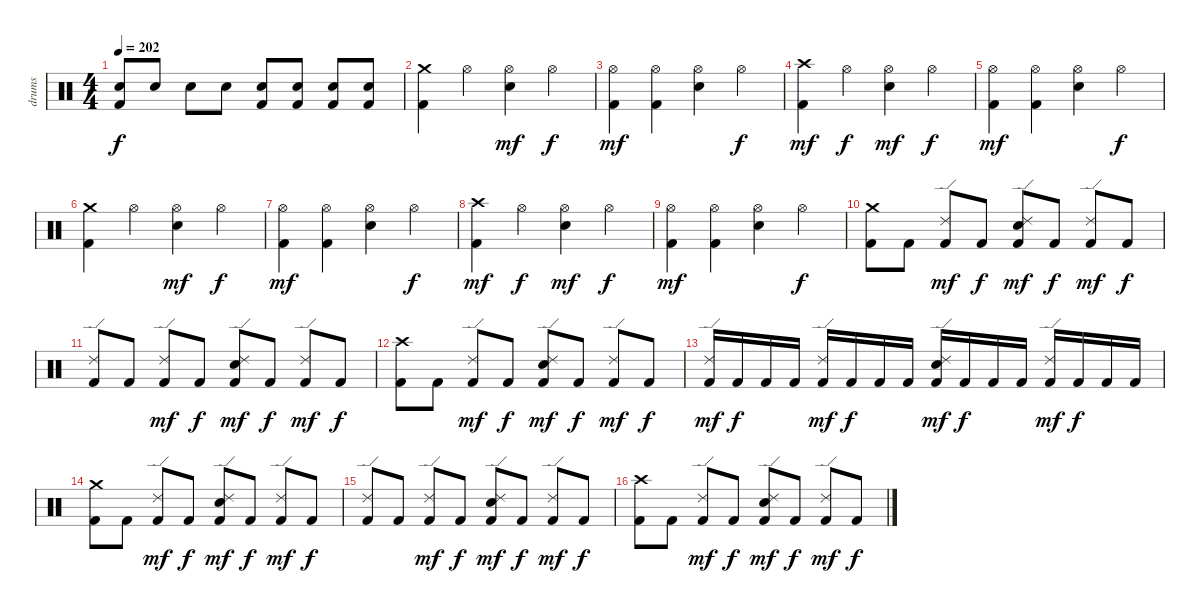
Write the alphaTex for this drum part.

\track ("drums" "drums") {instrument percussion}
\staff {score}
\articulation defaults
\ts (4 4)
\tempo 202
\clef neutral
\ks c
("Snare (hit) 2" "Kick (hit) 2").8{dy f} "Snare (hit) 2".8 "Snare (hit) 2".8 "Snare (hit) 2".8 ("Snare (hit) 2" "Kick (hit) 2").8 ("Snare (hit) 2" "Kick (hit) 2").8 ("Snare (hit) 2" "Kick (hit) 2").8 ("Snare (hit) 2" "Kick (hit) 2").8 |
("Crash medium (hit)" "Kick (hit) 2").4 "Hi-Hat (open)".4 ("Hi-Hat (open)" "Snare (hit) 2").4{dy mf} "Hi-Hat (open)".4{dy f} |
("Hi-Hat (open)" "Kick (hit) 2").4{dy mf} ("Hi-Hat (open)" "Kick (hit) 2").4 ("Hi-Hat (open)" "Snare (hit) 2").4 "Hi-Hat (open)".4{dy f} |
("Crash high (hit)" "Kick (hit) 2").4{dy mf} "Hi-Hat (open)".4{dy f} ("Hi-Hat (open)" "Snare (hit) 2").4{dy mf} "Hi-Hat (open)".4{dy f} |
("Hi-Hat (open)" "Kick (hit) 2").4{dy mf} ("Hi-Hat (open)" "Kick (hit) 2").4 ("Hi-Hat (open)" "Snare (hit) 2").4 "Hi-Hat (open)".4{dy f} |
("Crash medium (hit)" "Kick (hit) 2").4 "Hi-Hat (open)".4 ("Hi-Hat (open)" "Snare (hit) 2").4{dy mf} "Hi-Hat (open)".4{dy f} |
("Hi-Hat (open)" "Kick (hit) 2").4{dy mf} ("Hi-Hat (open)" "Kick (hit) 2").4 ("Hi-Hat (open)" "Snare (hit) 2").4 "Hi-Hat (open)".4{dy f} |
("Crash high (hit)" "Kick (hit) 2").4{dy mf} "Hi-Hat (open)".4{dy f} ("Hi-Hat (open)" "Snare (hit) 2").4{dy mf} "Hi-Hat (open)".4{dy f} |
("Hi-Hat (open)" "Kick (hit) 2").4{dy mf} ("Hi-Hat (open)" "Kick (hit) 2").4 ("Hi-Hat (open)" "Snare (hit) 2").4 "Hi-Hat (open)".4{dy f} |
("Crash medium (hit)" "Kick (hit) 2").8 "Kick (hit) 2".8 ("Ride (edge) 2" "Kick (hit) 2").8{dy mf} "Kick (hit) 2".8{dy f} ("Ride (edge) 2" "Snare (hit) 2" "Kick (hit) 2").8{dy mf} "Kick (hit) 2".8{dy f} ("Ride (edge) 2" "Kick (hit) 2").8{dy mf} "Kick (hit) 2".8{dy f} |
("Ride (edge) 2" "Kick (hit) 2").8 "Kick (hit) 2".8 ("Ride (edge) 2" "Kick (hit) 2").8{dy mf} "Kick (hit) 2".8{dy f} ("Ride (edge) 2" "Snare (hit) 2" "Kick (hit) 2").8{dy mf} "Kick (hit) 2".8{dy f} ("Ride (edge) 2" "Kick (hit) 2").8{dy mf} "Kick (hit) 2".8{dy f} |
("Crash high (hit)" "Kick (hit) 2").8 "Kick (hit) 2".8 ("Ride (edge) 2" "Kick (hit) 2").8{dy mf} "Kick (hit) 2".8{dy f} ("Ride (edge) 2" "Snare (hit) 2" "Kick (hit) 2").8{dy mf} "Kick (hit) 2".8{dy f} ("Ride (edge) 2" "Kick (hit) 2").8{dy mf} "Kick (hit) 2".8{dy f} |
("Ride (edge) 2" "Kick (hit) 2").16{dy mf} "Kick (hit) 2".16{dy f} "Kick (hit) 2".16 "Kick (hit) 2".16 ("Ride (edge) 2" "Kick (hit) 2").16{dy mf} "Kick (hit) 2".16{dy f} "Kick (hit) 2".16 "Kick (hit) 2".16 ("Ride (edge) 2" "Snare (hit) 2" "Kick (hit) 2").16{dy mf} "Kick (hit) 2".16{dy f} "Kick (hit) 2".16 "Kick (hit) 2".16 ("Ride (edge) 2" "Kick (hit) 2").16{dy mf} "Kick (hit) 2".16{dy f} "Kick (hit) 2".16 "Kick (hit) 2".16 |
("Crash medium (hit)" "Kick (hit) 2").8 "Kick (hit) 2".8 ("Ride (edge) 2" "Kick (hit) 2").8{dy mf} "Kick (hit) 2".8{dy f} ("Ride (edge) 2" "Snare (hit) 2" "Kick (hit) 2").8{dy mf} "Kick (hit) 2".8{dy f} ("Ride (edge) 2" "Kick (hit) 2").8{dy mf} "Kick (hit) 2".8{dy f} |
("Ride (edge) 2" "Kick (hit) 2").8 "Kick (hit) 2".8 ("Ride (edge) 2" "Kick (hit) 2").8{dy mf} "Kick (hit) 2".8{dy f} ("Ride (edge) 2" "Snare (hit) 2" "Kick (hit) 2").8{dy mf} "Kick (hit) 2".8{dy f} ("Ride (edge) 2" "Kick (hit) 2").8{dy mf} "Kick (hit) 2".8{dy f} |
("Crash high (hit)" "Kick (hit) 2").8 "Kick (hit) 2".8 ("Ride (edge) 2" "Kick (hit) 2").8{dy mf} "Kick (hit) 2".8{dy f} ("Ride (edge) 2" "Snare (hit) 2" "Kick (hit) 2").8{dy mf} "Kick (hit) 2".8{dy f} ("Ride (edge) 2" "Kick (hit) 2").8{dy mf} "Kick (hit) 2".8{dy f}
